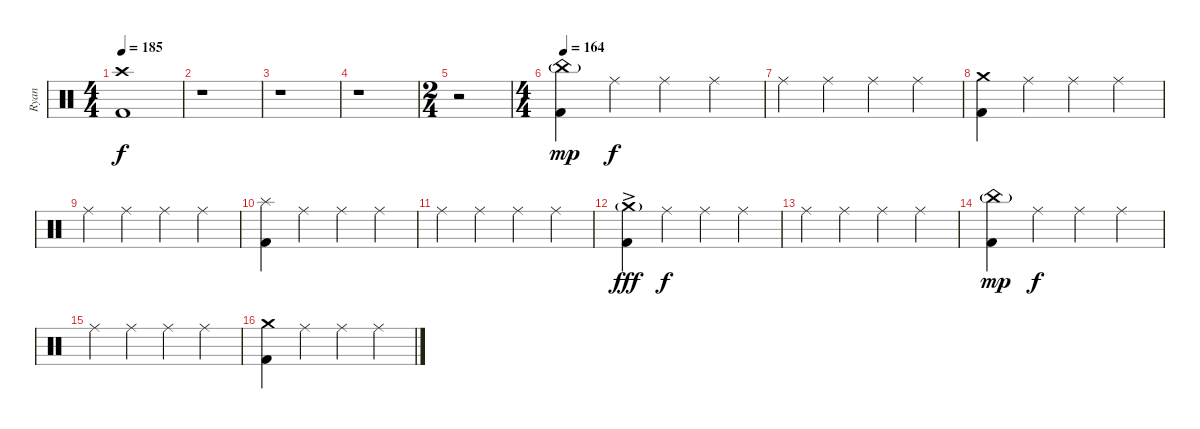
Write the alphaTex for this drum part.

\track ("Ryan" "Ryan") {instrument percussion}
\staff {score}
\articulation defaults
\ts (4 4)
\tempo 185
\clef neutral
\ks c
("Crash high (hit)" "Kick (hit) 2").1{dy f} |
r.1 |
r.1 |
r.1 |
\ts (2 4)
r.2 |
\ts (4 4)
\tempo 164
("China (hit)"{g} "Kick (hit) 2").4{dy mp} "Ride (middle)".4{dy f} "Ride (middle)".4 "Ride (middle)".4 |
"Ride (middle)".4 "Ride (middle)".4 "Ride (middle)".4 "Ride (middle)".4 |
("Crash medium (hit)" "Kick (hit) 2").4 "Ride (middle)".4 "Ride (middle)".4 "Ride (middle)".4 |
"Ride (middle)".4 "Ride (middle)".4 "Ride (middle)".4 "Ride (middle)".4 |
("Splash (hit)" "Kick (hit) 2").4 "Ride (middle)".4 "Ride (middle)".4 "Ride (middle)".4 |
"Ride (middle)".4 "Ride (middle)".4 "Ride (middle)".4 "Ride (middle)".4 |
("Crash medium (hit)"{g ac} "Kick (hit) 2").4{dy fff} "Ride (middle)".4{dy f} "Ride (middle)".4 "Ride (middle)".4 |
"Ride (middle)".4 "Ride (middle)".4 "Ride (middle)".4 "Ride (middle)".4 |
("China (hit)"{g} "Kick (hit) 2").4{dy mp} "Ride (middle)".4{dy f} "Ride (middle)".4 "Ride (middle)".4 |
"Ride (middle)".4 "Ride (middle)".4 "Ride (middle)".4 "Ride (middle)".4 |
("Crash medium (hit)" "Kick (hit) 2").4 "Ride (middle)".4 "Ride (middle)".4 "Ride (middle)".4
